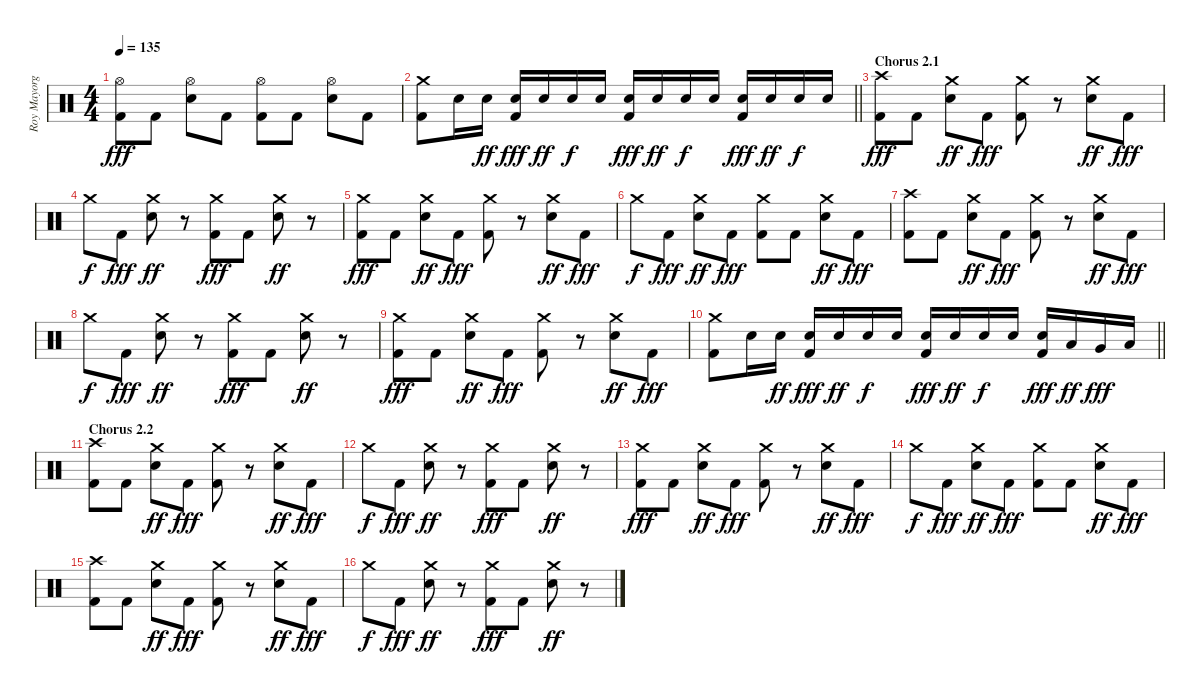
\track ("Roy Mayorga" "Roy Mayorg") {instrument percussion}
\staff {score}
\articulation defaults
\ts (4 4)
\tempo 135
\clef neutral
\ks c
("Hi-Hat (open)" "Kick (hit) 2").8{dy fff} "Kick (hit) 2".8 ("Hi-Hat (open)" "Electric Snare (hit)").8 "Kick (hit) 2".8 ("Hi-Hat (open)" "Kick (hit) 2").8 "Kick (hit) 2".8 ("Hi-Hat (open)" "Electric Snare (hit)").8 "Kick (hit) 2".8 |
\barLineRight lightlight
("Crash medium (hit)" "Kick (hit) 2").8 "Electric Snare (hit)".16 "Electric Snare (hit)".16{dy ff} ("Electric Snare (hit)" "Kick (hit) 2").16{dy fff} "Electric Snare (hit)".16{dy ff} "Electric Snare (hit)".16{dy f} "Electric Snare (hit)".16 ("Electric Snare (hit)" "Kick (hit) 2").16{dy fff} "Electric Snare (hit)".16{dy ff} "Electric Snare (hit)".16{dy f} "Electric Snare (hit)".16 ("Electric Snare (hit)" "Kick (hit) 2").16{dy fff} "Electric Snare (hit)".16{dy ff} "Electric Snare (hit)".16{dy f} "Electric Snare (hit)".16 |
\section ("" "Chorus 2.1")
("Crash high (hit)" "Kick (hit) 2").8{dy fff} "Kick (hit) 2".8 ("Crash medium (hit)" "Electric Snare (hit)").8{dy ff} "Kick (hit) 2".8{dy fff} ("Crash medium (hit)" "Kick (hit) 2").8 r.8 ("Crash medium (hit)" "Electric Snare (hit)").8{dy ff} "Kick (hit) 2".8{dy fff} |
"Crash medium (hit)".8{dy f} "Kick (hit) 2".8{dy fff} ("Crash medium (hit)" "Electric Snare (hit)").8{dy ff} r.8 ("Crash medium (hit)" "Kick (hit) 2").8{dy fff} "Kick (hit) 2".8 ("Crash medium (hit)" "Electric Snare (hit)").8{dy ff} r.8 |
("Crash medium (hit)" "Kick (hit) 2").8{dy fff} "Kick (hit) 2".8 ("Crash medium (hit)" "Electric Snare (hit)").8{dy ff} "Kick (hit) 2".8{dy fff} ("Crash medium (hit)" "Kick (hit) 2").8 r.8 ("Crash medium (hit)" "Electric Snare (hit)").8{dy ff} "Kick (hit) 2".8{dy fff} |
"Crash medium (hit)".8{dy f} "Kick (hit) 2".8{dy fff} ("Crash medium (hit)" "Electric Snare (hit)").8{dy ff} "Kick (hit) 2".8{dy fff} ("Crash medium (hit)" "Kick (hit) 2").8 "Kick (hit) 2".8 ("Crash medium (hit)" "Electric Snare (hit)").8{dy ff} "Kick (hit) 2".8{dy fff} |
("Crash high (hit)" "Kick (hit) 2").8 "Kick (hit) 2".8 ("Crash medium (hit)" "Electric Snare (hit)").8{dy ff} "Kick (hit) 2".8{dy fff} ("Crash medium (hit)" "Kick (hit) 2").8 r.8 ("Crash medium (hit)" "Electric Snare (hit)").8{dy ff} "Kick (hit) 2".8{dy fff} |
"Crash medium (hit)".8{dy f} "Kick (hit) 2".8{dy fff} ("Crash medium (hit)" "Electric Snare (hit)").8{dy ff} r.8 ("Crash medium (hit)" "Kick (hit) 2").8{dy fff} "Kick (hit) 2".8 ("Crash medium (hit)" "Electric Snare (hit)").8{dy ff} r.8 |
("Crash medium (hit)" "Kick (hit) 2").8{dy fff} "Kick (hit) 2".8 ("Crash medium (hit)" "Electric Snare (hit)").8{dy ff} "Kick (hit) 2".8{dy fff} ("Crash medium (hit)" "Kick (hit) 2").8 r.8 ("Crash medium (hit)" "Electric Snare (hit)").8{dy ff} "Kick (hit) 2".8{dy fff} |
\barLineRight lightlight
("Crash medium (hit)" "Kick (hit) 2").8 "Electric Snare (hit)".16 "Electric Snare (hit)".16{dy ff} ("Electric Snare (hit)" "Kick (hit) 2").16{dy fff} "Electric Snare (hit)".16{dy ff} "Electric Snare (hit)".16{dy f} "Electric Snare (hit)".16 ("Electric Snare (hit)" "Kick (hit) 2").16{dy fff} "Electric Snare (hit)".16{dy ff} "Electric Snare (hit)".16{dy f} "Electric Snare (hit)".16 ("Electric Snare (hit)" "Kick (hit) 2").16{dy fff} "Low Tom (hit)".16{dy ff} "Very Low Tom (hit)".16{dy fff} "Low Floor Tom (hit)".16 |
\section ("" "Chorus 2.2")
("Crash high (hit)" "Kick (hit) 2").8 "Kick (hit) 2".8 ("Crash medium (hit)" "Electric Snare (hit)").8{dy ff} "Kick (hit) 2".8{dy fff} ("Crash medium (hit)" "Kick (hit) 2").8 r.8 ("Crash medium (hit)" "Electric Snare (hit)").8{dy ff} "Kick (hit) 2".8{dy fff} |
"Crash medium (hit)".8{dy f} "Kick (hit) 2".8{dy fff} ("Crash medium (hit)" "Electric Snare (hit)").8{dy ff} r.8 ("Crash medium (hit)" "Kick (hit) 2").8{dy fff} "Kick (hit) 2".8 ("Crash medium (hit)" "Electric Snare (hit)").8{dy ff} r.8 |
("Crash medium (hit)" "Kick (hit) 2").8{dy fff} "Kick (hit) 2".8 ("Crash medium (hit)" "Electric Snare (hit)").8{dy ff} "Kick (hit) 2".8{dy fff} ("Crash medium (hit)" "Kick (hit) 2").8 r.8 ("Crash medium (hit)" "Electric Snare (hit)").8{dy ff} "Kick (hit) 2".8{dy fff} |
"Crash medium (hit)".8{dy f} "Kick (hit) 2".8{dy fff} ("Crash medium (hit)" "Electric Snare (hit)").8{dy ff} "Kick (hit) 2".8{dy fff} ("Crash medium (hit)" "Kick (hit) 2").8 "Kick (hit) 2".8 ("Crash medium (hit)" "Electric Snare (hit)").8{dy ff} "Kick (hit) 2".8{dy fff} |
("Crash high (hit)" "Kick (hit) 2").8 "Kick (hit) 2".8 ("Crash medium (hit)" "Electric Snare (hit)").8{dy ff} "Kick (hit) 2".8{dy fff} ("Crash medium (hit)" "Kick (hit) 2").8 r.8 ("Crash medium (hit)" "Electric Snare (hit)").8{dy ff} "Kick (hit) 2".8{dy fff} |
"Crash medium (hit)".8{dy f} "Kick (hit) 2".8{dy fff} ("Crash medium (hit)" "Electric Snare (hit)").8{dy ff} r.8 ("Crash medium (hit)" "Kick (hit) 2").8{dy fff} "Kick (hit) 2".8 ("Crash medium (hit)" "Electric Snare (hit)").8{dy ff} r.8
